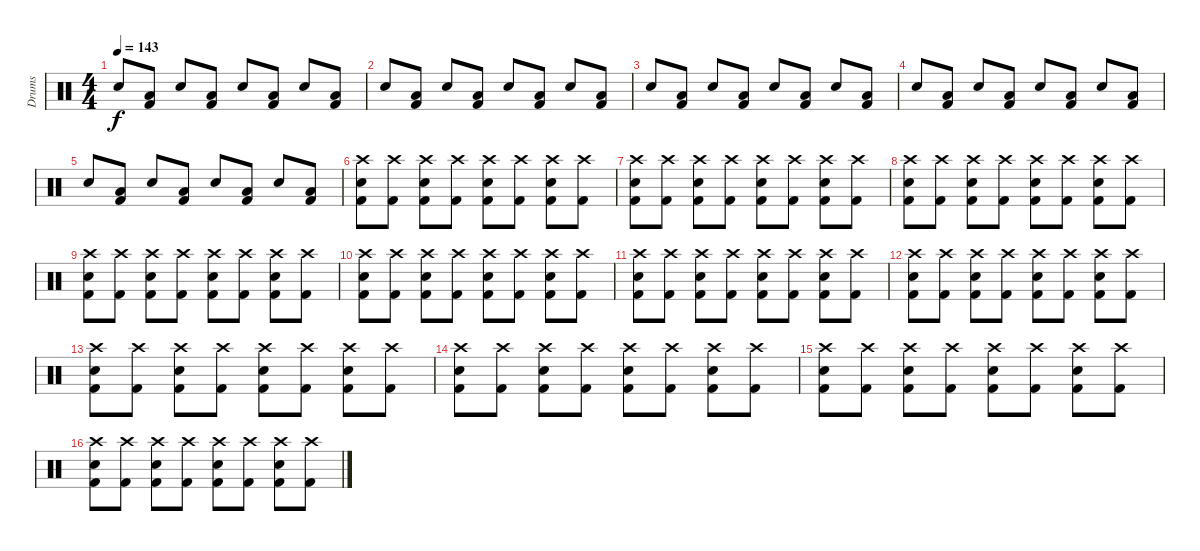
\track ("Drums" "Drums") {instrument percussion}
\staff {score}
\articulation defaults
\ts (4 4)
\tempo 143
\clef neutral
\ks c "Electric Snare (hit)".8{dy f}
("Low Tom (hit)" "Kick (hit) 2").8 "Electric Snare (hit)".8 ("Low Tom (hit)" "Kick (hit) 2").8 "Electric Snare (hit)".8 ("Low Tom (hit)" "Kick (hit) 2").8 "Electric Snare (hit)".8 ("Low Tom (hit)" "Kick (hit) 2").8 |
"Electric Snare (hit)".8 ("Low Tom (hit)" "Kick (hit) 2").8 "Electric Snare (hit)".8 ("Low Tom (hit)" "Kick (hit) 2").8 "Electric Snare (hit)".8 ("Low Tom (hit)" "Kick (hit) 2").8 "Electric Snare (hit)".8 ("Low Tom (hit)" "Kick (hit) 2").8 |
"Electric Snare (hit)".8 ("Low Tom (hit)" "Kick (hit) 2").8 "Electric Snare (hit)".8 ("Low Tom (hit)" "Kick (hit) 2").8 "Electric Snare (hit)".8 ("Low Tom (hit)" "Kick (hit) 2").8 "Electric Snare (hit)".8 ("Low Tom (hit)" "Kick (hit) 2").8 |
"Electric Snare (hit)".8 ("Low Tom (hit)" "Kick (hit) 2").8 "Electric Snare (hit)".8 ("Low Tom (hit)" "Kick (hit) 2").8 "Electric Snare (hit)".8 ("Low Tom (hit)" "Kick (hit) 2").8 "Electric Snare (hit)".8 ("Low Tom (hit)" "Kick (hit) 2").8 |
"Electric Snare (hit)".8 ("Low Tom (hit)" "Kick (hit) 2").8 "Electric Snare (hit)".8 ("Low Tom (hit)" "Kick (hit) 2").8 "Electric Snare (hit)".8 ("Low Tom (hit)" "Kick (hit) 2").8 "Electric Snare (hit)".8 ("Low Tom (hit)" "Kick (hit) 2").8 |
("Crash high (hit)" "Electric Snare (hit)" "Kick (hit) 2").8 ("Crash high (hit)" "Kick (hit) 2").8 ("Crash high (hit)" "Electric Snare (hit)" "Kick (hit) 2").8 ("Crash high (hit)" "Kick (hit) 2").8 ("Crash high (hit)" "Electric Snare (hit)" "Kick (hit) 2").8 ("Crash high (hit)" "Kick (hit) 2").8 ("Crash high (hit)" "Electric Snare (hit)" "Kick (hit) 2").8 ("Crash high (hit)" "Kick (hit) 2").8 |
("Crash high (hit)" "Electric Snare (hit)" "Kick (hit) 2").8 ("Crash high (hit)" "Kick (hit) 2").8 ("Crash high (hit)" "Electric Snare (hit)" "Kick (hit) 2").8 ("Crash high (hit)" "Kick (hit) 2").8 ("Crash high (hit)" "Electric Snare (hit)" "Kick (hit) 2").8 ("Crash high (hit)" "Kick (hit) 2").8 ("Crash high (hit)" "Electric Snare (hit)" "Kick (hit) 2").8 ("Crash high (hit)" "Kick (hit) 2").8 |
("Crash high (hit)" "Electric Snare (hit)" "Kick (hit) 2").8 ("Crash high (hit)" "Kick (hit) 2").8 ("Crash high (hit)" "Electric Snare (hit)" "Kick (hit) 2").8 ("Crash high (hit)" "Kick (hit) 2").8 ("Crash high (hit)" "Electric Snare (hit)" "Kick (hit) 2").8 ("Crash high (hit)" "Kick (hit) 2").8 ("Crash high (hit)" "Electric Snare (hit)" "Kick (hit) 2").8 ("Crash high (hit)" "Kick (hit) 2").8 |
("Crash high (hit)" "Electric Snare (hit)" "Kick (hit) 2").8 ("Crash high (hit)" "Kick (hit) 2").8 ("Crash high (hit)" "Electric Snare (hit)" "Kick (hit) 2").8 ("Crash high (hit)" "Kick (hit) 2").8 ("Crash high (hit)" "Electric Snare (hit)" "Kick (hit) 2").8 ("Crash high (hit)" "Kick (hit) 2").8 ("Crash high (hit)" "Electric Snare (hit)" "Kick (hit) 2").8 ("Crash high (hit)" "Kick (hit) 2").8 |
("Crash high (hit)" "Electric Snare (hit)" "Kick (hit) 2").8 ("Crash high (hit)" "Kick (hit) 2").8 ("Crash high (hit)" "Electric Snare (hit)" "Kick (hit) 2").8 ("Crash high (hit)" "Kick (hit) 2").8 ("Crash high (hit)" "Electric Snare (hit)" "Kick (hit) 2").8 ("Crash high (hit)" "Kick (hit) 2").8 ("Crash high (hit)" "Electric Snare (hit)" "Kick (hit) 2").8 ("Crash high (hit)" "Kick (hit) 2").8 |
("Crash high (hit)" "Electric Snare (hit)" "Kick (hit) 2").8 ("Crash high (hit)" "Kick (hit) 2").8 ("Crash high (hit)" "Electric Snare (hit)" "Kick (hit) 2").8 ("Crash high (hit)" "Kick (hit) 2").8 ("Crash high (hit)" "Electric Snare (hit)" "Kick (hit) 2").8 ("Crash high (hit)" "Kick (hit) 2").8 ("Crash high (hit)" "Electric Snare (hit)" "Kick (hit) 2").8 ("Crash high (hit)" "Kick (hit) 2").8 |
("Crash high (hit)" "Electric Snare (hit)" "Kick (hit) 2").8 ("Crash high (hit)" "Kick (hit) 2").8 ("Crash high (hit)" "Electric Snare (hit)" "Kick (hit) 2").8 ("Crash high (hit)" "Kick (hit) 2").8 ("Crash high (hit)" "Electric Snare (hit)" "Kick (hit) 2").8 ("Crash high (hit)" "Kick (hit) 2").8 ("Crash high (hit)" "Electric Snare (hit)" "Kick (hit) 2").8 ("Crash high (hit)" "Kick (hit) 2").8 |
("Crash high (hit)" "Electric Snare (hit)" "Kick (hit) 2").8 ("Crash high (hit)" "Kick (hit) 2").8 ("Crash high (hit)" "Electric Snare (hit)" "Kick (hit) 2").8 ("Crash high (hit)" "Kick (hit) 2").8 ("Crash high (hit)" "Electric Snare (hit)" "Kick (hit) 2").8 ("Crash high (hit)" "Kick (hit) 2").8 ("Crash high (hit)" "Electric Snare (hit)" "Kick (hit) 2").8 ("Crash high (hit)" "Kick (hit) 2").8 |
("Crash high (hit)" "Electric Snare (hit)" "Kick (hit) 2").8 ("Crash high (hit)" "Kick (hit) 2").8 ("Crash high (hit)" "Electric Snare (hit)" "Kick (hit) 2").8 ("Crash high (hit)" "Kick (hit) 2").8 ("Crash high (hit)" "Electric Snare (hit)" "Kick (hit) 2").8 ("Crash high (hit)" "Kick (hit) 2").8 ("Crash high (hit)" "Electric Snare (hit)" "Kick (hit) 2").8 ("Crash high (hit)" "Kick (hit) 2").8 |
("Crash high (hit)" "Electric Snare (hit)" "Kick (hit) 2").8 ("Crash high (hit)" "Kick (hit) 2").8 ("Crash high (hit)" "Electric Snare (hit)" "Kick (hit) 2").8 ("Crash high (hit)" "Kick (hit) 2").8 ("Crash high (hit)" "Electric Snare (hit)" "Kick (hit) 2").8 ("Crash high (hit)" "Kick (hit) 2").8 ("Crash high (hit)" "Electric Snare (hit)" "Kick (hit) 2").8 ("Crash high (hit)" "Kick (hit) 2").8 |
("Crash high (hit)" "Electric Snare (hit)" "Kick (hit) 2").8 ("Crash high (hit)" "Kick (hit) 2").8 ("Crash high (hit)" "Electric Snare (hit)" "Kick (hit) 2").8 ("Crash high (hit)" "Kick (hit) 2").8 ("Crash high (hit)" "Electric Snare (hit)" "Kick (hit) 2").8 ("Crash high (hit)" "Kick (hit) 2").8 ("Crash high (hit)" "Electric Snare (hit)" "Kick (hit) 2").8 ("Crash high (hit)" "Kick (hit) 2").8
